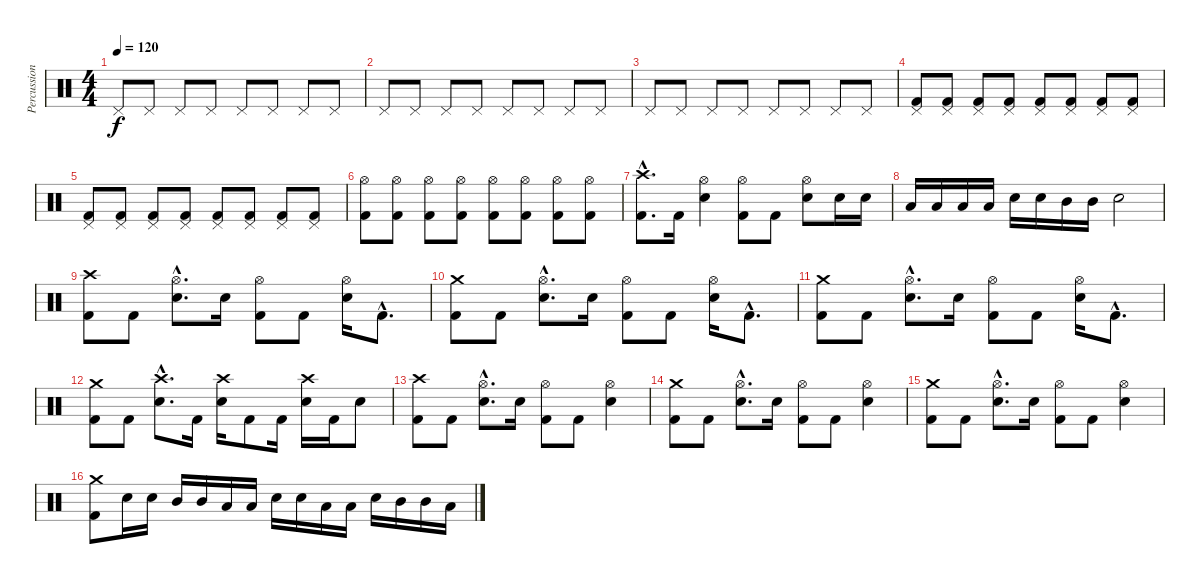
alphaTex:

\track ("Percussion" "Percussion") {instrument percussion}
\staff {score}
\articulation defaults
\ts (4 4)
\tempo 120
\clef neutral
\ks c "Pedal Hi-Hat (hit)".8{dy f} "Pedal Hi-Hat (hit)".8 "Pedal Hi-Hat (hit)".8 "Pedal Hi-Hat (hit)".8 "Pedal Hi-Hat (hit)".8 "Pedal Hi-Hat (hit)".8 "Pedal Hi-Hat (hit)".8 "Pedal Hi-Hat (hit)".8
|
"Pedal Hi-Hat (hit)".8 "Pedal Hi-Hat (hit)".8 "Pedal Hi-Hat (hit)".8 "Pedal Hi-Hat (hit)".8 "Pedal Hi-Hat (hit)".8 "Pedal Hi-Hat (hit)".8 "Pedal Hi-Hat (hit)".8 "Pedal Hi-Hat (hit)".8 |
"Pedal Hi-Hat (hit)".8 "Pedal Hi-Hat (hit)".8 "Pedal Hi-Hat (hit)".8 "Pedal Hi-Hat (hit)".8 "Pedal Hi-Hat (hit)".8 "Pedal Hi-Hat (hit)".8 "Pedal Hi-Hat (hit)".8 "Pedal Hi-Hat (hit)".8 |
("Pedal Hi-Hat (hit)" "Kick (hit) 2").8 ("Pedal Hi-Hat (hit)" "Kick (hit) 2").8 ("Pedal Hi-Hat (hit)" "Kick (hit) 2").8 ("Pedal Hi-Hat (hit)" "Kick (hit) 2").8 ("Pedal Hi-Hat (hit)" "Kick (hit) 2").8 ("Pedal Hi-Hat (hit)" "Kick (hit) 2").8 ("Pedal Hi-Hat (hit)" "Kick (hit) 2").8 ("Pedal Hi-Hat (hit)" "Kick (hit) 2").8 |
("Pedal Hi-Hat (hit)" "Kick (hit) 2").8 ("Pedal Hi-Hat (hit)" "Kick (hit) 2").8 ("Pedal Hi-Hat (hit)" "Kick (hit) 2").8 ("Pedal Hi-Hat (hit)" "Kick (hit) 2").8 ("Pedal Hi-Hat (hit)" "Kick (hit) 2").8 ("Pedal Hi-Hat (hit)" "Kick (hit) 2").8 ("Pedal Hi-Hat (hit)" "Kick (hit) 2").8 ("Pedal Hi-Hat (hit)" "Kick (hit) 2").8 |
("Hi-Hat (open)" "Kick (hit) 2").8 ("Hi-Hat (open)" "Kick (hit) 2").8 ("Hi-Hat (open)" "Kick (hit) 2").8 ("Hi-Hat (open)" "Kick (hit) 2").8 ("Hi-Hat (open)" "Kick (hit) 2").8 ("Hi-Hat (open)" "Kick (hit) 2").8 ("Hi-Hat (open)" "Kick (hit) 2").8 ("Hi-Hat (open)" "Kick (hit) 2").8 |
("Crash high (hit)"{hac} "Kick (hit) 2"{hac}).8{d} "Kick (hit) 2".16 ("Hi-Hat (open)" "Snare (hit) 2").4 ("Hi-Hat (open)" "Kick (hit) 2").8 "Kick (hit) 2".8 ("Hi-Hat (open)" "Snare (hit) 2").8 "Snare (hit) 2".16 "Snare (hit) 2".16 |
"Low Tom (hit)".16 "Low Tom (hit)".16 "Low Tom (hit)".16 "Low Tom (hit)".16 "Snare (hit) 2".16 "Snare (hit) 2".16 "Mid Tom (hit)".16 "Mid Tom (hit)".16 "Snare (hit) 2".2 |
("Crash high (hit)" "Kick (hit) 2").8 "Kick (hit) 2".8 ("Hi-Hat (open)"{hac} "Snare (hit) 2"{hac}).8{d} "Snare (hit) 2".16 ("Hi-Hat (open)" "Kick (hit) 2").8 "Kick (hit) 2".8 ("Hi-Hat (open)" "Snare (hit) 2").16 "Kick (hit) 2"{hac}.8{d} |
("Crash medium (hit)" "Kick (hit) 2").8 "Kick (hit) 2".8 ("Hi-Hat (open)"{hac} "Snare (hit) 2"{hac}).8{d} "Snare (hit) 2".16 ("Hi-Hat (open)" "Kick (hit) 2").8 "Kick (hit) 2".8 ("Hi-Hat (open)" "Snare (hit) 2").16 "Kick (hit) 2"{hac}.8{d} |
("Crash medium (hit)" "Kick (hit) 2").8 "Kick (hit) 2".8 ("Hi-Hat (open)"{hac} "Snare (hit) 2"{hac}).8{d} "Snare (hit) 2".16 ("Hi-Hat (open)" "Kick (hit) 2").8 "Kick (hit) 2".8 ("Hi-Hat (open)" "Snare (hit) 2").16 "Kick (hit) 2"{hac}.8{d} |
("Crash medium (hit)" "Kick (hit) 2").8 "Kick (hit) 2".8 ("Crash high (hit)"{hac} "Snare (hit) 2"{hac}).8{d} "Kick (hit) 2".16 ("Crash high (hit)" "Snare (hit) 2").16 "Kick (hit) 2".8 "Kick (hit) 2".16 ("Crash high (hit)" "Snare (hit) 2").16 "Kick (hit) 2".16 "Snare (hit) 2".8 |
("Crash high (hit)" "Kick (hit) 2").8 "Kick (hit) 2".8 ("Hi-Hat (open)"{hac} "Snare (hit) 2"{hac}).8{d} "Snare (hit) 2".16 ("Hi-Hat (open)" "Kick (hit) 2").8 "Kick (hit) 2".8 ("Hi-Hat (open)" "Snare (hit) 2").4 |
("Crash medium (hit)" "Kick (hit) 2").8 "Kick (hit) 2".8 ("Hi-Hat (open)"{hac} "Snare (hit) 2"{hac}).8{d} "Snare (hit) 2".16 ("Hi-Hat (open)" "Kick (hit) 2").8 "Kick (hit) 2".8 ("Hi-Hat (open)" "Snare (hit) 2").4 |
("Crash medium (hit)" "Kick (hit) 2").8 "Kick (hit) 2".8 ("Hi-Hat (open)"{hac} "Snare (hit) 2"{hac}).8{d} "Snare (hit) 2".16 ("Hi-Hat (open)" "Kick (hit) 2").8 "Kick (hit) 2".8 ("Hi-Hat (open)" "Snare (hit) 2").4 |
("Crash medium (hit)" "Kick (hit) 2").8 "Snare (hit) 2".16 "Snare (hit) 2".16 "Mid Tom (hit)".16 "Mid Tom (hit)".16 "Low Tom (hit)".16 "Low Tom (hit)".16 "Snare (hit) 2".16 "Snare (hit) 2".16 "Low Tom (hit)".16 "Low Tom (hit)".16 "Snare (hit) 2".16 "Mid Tom (hit)".16 "Mid Tom (hit)".16 "Low Tom (hit)".16
